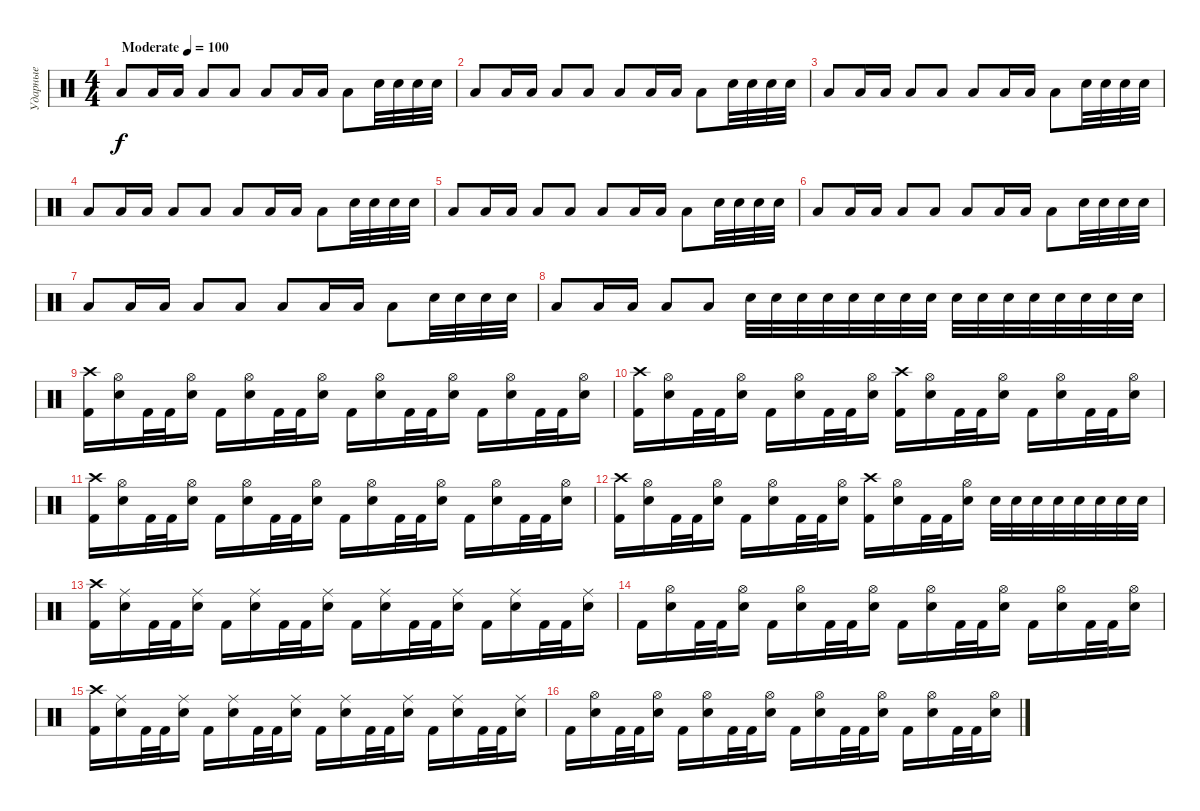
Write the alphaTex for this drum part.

\track ("Ударные" "Ударные") {instrument percussion}
\staff {score}
\articulation defaults
\ts (4 4)
\tempo (100 "Moderate")
\clef neutral
\ks c "Low Tom (hit)".8{dy f} "Low Tom (hit)".16 "Low Tom (hit)".16 "Low Tom (hit)".8 "Low Tom (hit)".8 "Low Tom (hit)".8 "Low Tom (hit)".16 "Low Tom (hit)".16 "Low Tom (hit)".8 "Electric Snare (hit)".32 "Electric Snare (hit)".32 "Electric Snare (hit)".32 "Electric Snare (hit)".32
|
"Low Tom (hit)".8 "Low Tom (hit)".16 "Low Tom (hit)".16 "Low Tom (hit)".8 "Low Tom (hit)".8 "Low Tom (hit)".8 "Low Tom (hit)".16 "Low Tom (hit)".16 "Low Tom (hit)".8 "Electric Snare (hit)".32 "Electric Snare (hit)".32 "Electric Snare (hit)".32 "Electric Snare (hit)".32 |
"Low Tom (hit)".8 "Low Tom (hit)".16 "Low Tom (hit)".16 "Low Tom (hit)".8 "Low Tom (hit)".8 "Low Tom (hit)".8 "Low Tom (hit)".16 "Low Tom (hit)".16 "Low Tom (hit)".8 "Electric Snare (hit)".32 "Electric Snare (hit)".32 "Electric Snare (hit)".32 "Electric Snare (hit)".32 |
"Low Tom (hit)".8 "Low Tom (hit)".16 "Low Tom (hit)".16 "Low Tom (hit)".8 "Low Tom (hit)".8 "Low Tom (hit)".8 "Low Tom (hit)".16 "Low Tom (hit)".16 "Low Tom (hit)".8 "Electric Snare (hit)".32 "Electric Snare (hit)".32 "Electric Snare (hit)".32 "Electric Snare (hit)".32 |
"Low Tom (hit)".8 "Low Tom (hit)".16 "Low Tom (hit)".16 "Low Tom (hit)".8 "Low Tom (hit)".8 "Low Tom (hit)".8 "Low Tom (hit)".16 "Low Tom (hit)".16 "Low Tom (hit)".8 "Electric Snare (hit)".32 "Electric Snare (hit)".32 "Electric Snare (hit)".32 "Electric Snare (hit)".32 |
"Low Tom (hit)".8 "Low Tom (hit)".16 "Low Tom (hit)".16 "Low Tom (hit)".8 "Low Tom (hit)".8 "Low Tom (hit)".8 "Low Tom (hit)".16 "Low Tom (hit)".16 "Low Tom (hit)".8 "Electric Snare (hit)".32 "Electric Snare (hit)".32 "Electric Snare (hit)".32 "Electric Snare (hit)".32 |
"Low Tom (hit)".8 "Low Tom (hit)".16 "Low Tom (hit)".16 "Low Tom (hit)".8 "Low Tom (hit)".8 "Low Tom (hit)".8 "Low Tom (hit)".16 "Low Tom (hit)".16 "Low Tom (hit)".8 "Electric Snare (hit)".32 "Electric Snare (hit)".32 "Electric Snare (hit)".32 "Electric Snare (hit)".32 |
"Low Tom (hit)".8 "Low Tom (hit)".16 "Low Tom (hit)".16 "Low Tom (hit)".8 "Low Tom (hit)".8 "Electric Snare (hit)".32 "Electric Snare (hit)".32 "Electric Snare (hit)".32 "Electric Snare (hit)".32 "Electric Snare (hit)".32 "Electric Snare (hit)".32 "Electric Snare (hit)".32 "Electric Snare (hit)".32 "Electric Snare (hit)".32 "Electric Snare (hit)".32 "Electric Snare (hit)".32 "Electric Snare (hit)".32 "Electric Snare (hit)".32 "Electric Snare (hit)".32 "Electric Snare (hit)".32 "Electric Snare (hit)".32 |
("Kick (hit) 2" "Crash high (hit)").16 ("Electric Snare (hit)" "Hi-Hat (open)").16 "Kick (hit) 2".32 "Kick (hit) 2".32 ("Electric Snare (hit)" "Hi-Hat (open)").16 "Kick (hit) 2".16 ("Electric Snare (hit)" "Hi-Hat (open)").16 "Kick (hit) 2".32 "Kick (hit) 2".32 ("Electric Snare (hit)" "Hi-Hat (open)").16 "Kick (hit) 2".16 ("Electric Snare (hit)" "Hi-Hat (open)").16 "Kick (hit) 2".32 "Kick (hit) 2".32 ("Electric Snare (hit)" "Hi-Hat (open)").16 "Kick (hit) 2".16 ("Electric Snare (hit)" "Hi-Hat (open)").16 "Kick (hit) 2".32 "Kick (hit) 2".32 ("Electric Snare (hit)" "Hi-Hat (open)").16 |
("Kick (hit) 2" "Crash high (hit)").16 ("Electric Snare (hit)" "Hi-Hat (open)").16 "Kick (hit) 2".32 "Kick (hit) 2".32 ("Electric Snare (hit)" "Hi-Hat (open)").16 "Kick (hit) 2".16 ("Electric Snare (hit)" "Hi-Hat (open)").16 "Kick (hit) 2".32 "Kick (hit) 2".32 ("Electric Snare (hit)" "Hi-Hat (open)").16 ("Kick (hit) 2" "Crash high (hit)").16 ("Electric Snare (hit)" "Hi-Hat (open)").16 "Kick (hit) 2".32 "Kick (hit) 2".32 ("Electric Snare (hit)" "Hi-Hat (open)").16 "Kick (hit) 2".16 ("Electric Snare (hit)" "Hi-Hat (open)").16 "Kick (hit) 2".32 "Kick (hit) 2".32 ("Electric Snare (hit)" "Hi-Hat (open)").16 |
("Kick (hit) 2" "Crash high (hit)").16 ("Electric Snare (hit)" "Hi-Hat (open)").16 "Kick (hit) 2".32 "Kick (hit) 2".32 ("Electric Snare (hit)" "Hi-Hat (open)").16 "Kick (hit) 2".16 ("Electric Snare (hit)" "Hi-Hat (open)").16 "Kick (hit) 2".32 "Kick (hit) 2".32 ("Electric Snare (hit)" "Hi-Hat (open)").16 "Kick (hit) 2".16 ("Electric Snare (hit)" "Hi-Hat (open)").16 "Kick (hit) 2".32 "Kick (hit) 2".32 ("Electric Snare (hit)" "Hi-Hat (open)").16 "Kick (hit) 2".16 ("Electric Snare (hit)" "Hi-Hat (open)").16 "Kick (hit) 2".32 "Kick (hit) 2".32 ("Electric Snare (hit)" "Hi-Hat (open)").16 |
("Kick (hit) 2" "Crash high (hit)").16 ("Electric Snare (hit)" "Hi-Hat (open)").16 "Kick (hit) 2".32 "Kick (hit) 2".32 ("Electric Snare (hit)" "Hi-Hat (open)").16 "Kick (hit) 2".16 ("Electric Snare (hit)" "Hi-Hat (open)").16 "Kick (hit) 2".32 "Kick (hit) 2".32 ("Electric Snare (hit)" "Hi-Hat (open)").16 ("Kick (hit) 2" "Crash high (hit)").16 ("Electric Snare (hit)" "Hi-Hat (open)").16 "Kick (hit) 2".32 "Kick (hit) 2".32 ("Electric Snare (hit)" "Hi-Hat (open)").16 "Electric Snare (hit)".32 "Electric Snare (hit)".32 "Electric Snare (hit)".32 "Electric Snare (hit)".32 "Electric Snare (hit)".32 "Electric Snare (hit)".32 "Electric Snare (hit)".32 "Electric Snare (hit)".32 |
("Kick (hit) 2" "Crash high (hit)").16 ("Electric Snare (hit)" "Ride (middle)").16 "Kick (hit) 2".32 "Kick (hit) 2".32 ("Electric Snare (hit)" "Ride (middle)").16 "Kick (hit) 2".16 ("Electric Snare (hit)" "Ride (middle)").16 "Kick (hit) 2".32 "Kick (hit) 2".32 ("Electric Snare (hit)" "Ride (middle)").16 "Kick (hit) 2".16 ("Electric Snare (hit)" "Ride (middle)").16 "Kick (hit) 2".32 "Kick (hit) 2".32 ("Electric Snare (hit)" "Ride (middle)").16 "Kick (hit) 2".16 ("Electric Snare (hit)" "Ride (middle)").16 "Kick (hit) 2".32 "Kick (hit) 2".32 ("Electric Snare (hit)" "Ride (middle)").16 |
"Kick (hit) 2".16 ("Electric Snare (hit)" "Hi-Hat (open)").16 "Kick (hit) 2".32 "Kick (hit) 2".32 ("Electric Snare (hit)" "Hi-Hat (open)").16 "Kick (hit) 2".16 ("Electric Snare (hit)" "Hi-Hat (open)").16 "Kick (hit) 2".32 "Kick (hit) 2".32 ("Electric Snare (hit)" "Hi-Hat (open)").16 "Kick (hit) 2".16 ("Electric Snare (hit)" "Hi-Hat (open)").16 "Kick (hit) 2".32 "Kick (hit) 2".32 ("Electric Snare (hit)" "Hi-Hat (open)").16 "Kick (hit) 2".16 ("Electric Snare (hit)" "Hi-Hat (open)").16 "Kick (hit) 2".32 "Kick (hit) 2".32 ("Electric Snare (hit)" "Hi-Hat (open)").16 |
("Kick (hit) 2" "Crash high (hit)").16 ("Electric Snare (hit)" "Ride (middle)").16 "Kick (hit) 2".32 "Kick (hit) 2".32 ("Electric Snare (hit)" "Ride (middle)").16 "Kick (hit) 2".16 ("Electric Snare (hit)" "Ride (middle)").16 "Kick (hit) 2".32 "Kick (hit) 2".32 ("Electric Snare (hit)" "Ride (middle)").16 "Kick (hit) 2".16 ("Electric Snare (hit)" "Ride (middle)").16 "Kick (hit) 2".32 "Kick (hit) 2".32 ("Electric Snare (hit)" "Ride (middle)").16 "Kick (hit) 2".16 ("Electric Snare (hit)" "Ride (middle)").16 "Kick (hit) 2".32 "Kick (hit) 2".32 ("Electric Snare (hit)" "Ride (middle)").16 |
"Kick (hit) 2".16 ("Electric Snare (hit)" "Hi-Hat (open)").16 "Kick (hit) 2".32 "Kick (hit) 2".32 ("Electric Snare (hit)" "Hi-Hat (open)").16 "Kick (hit) 2".16 ("Electric Snare (hit)" "Hi-Hat (open)").16 "Kick (hit) 2".32 "Kick (hit) 2".32 ("Electric Snare (hit)" "Hi-Hat (open)").16 "Kick (hit) 2".16 ("Electric Snare (hit)" "Hi-Hat (open)").16 "Kick (hit) 2".32 "Kick (hit) 2".32 ("Electric Snare (hit)" "Hi-Hat (open)").16 "Kick (hit) 2".16 ("Electric Snare (hit)" "Hi-Hat (open)").16 "Kick (hit) 2".32 "Kick (hit) 2".32 ("Electric Snare (hit)" "Hi-Hat (open)").16
